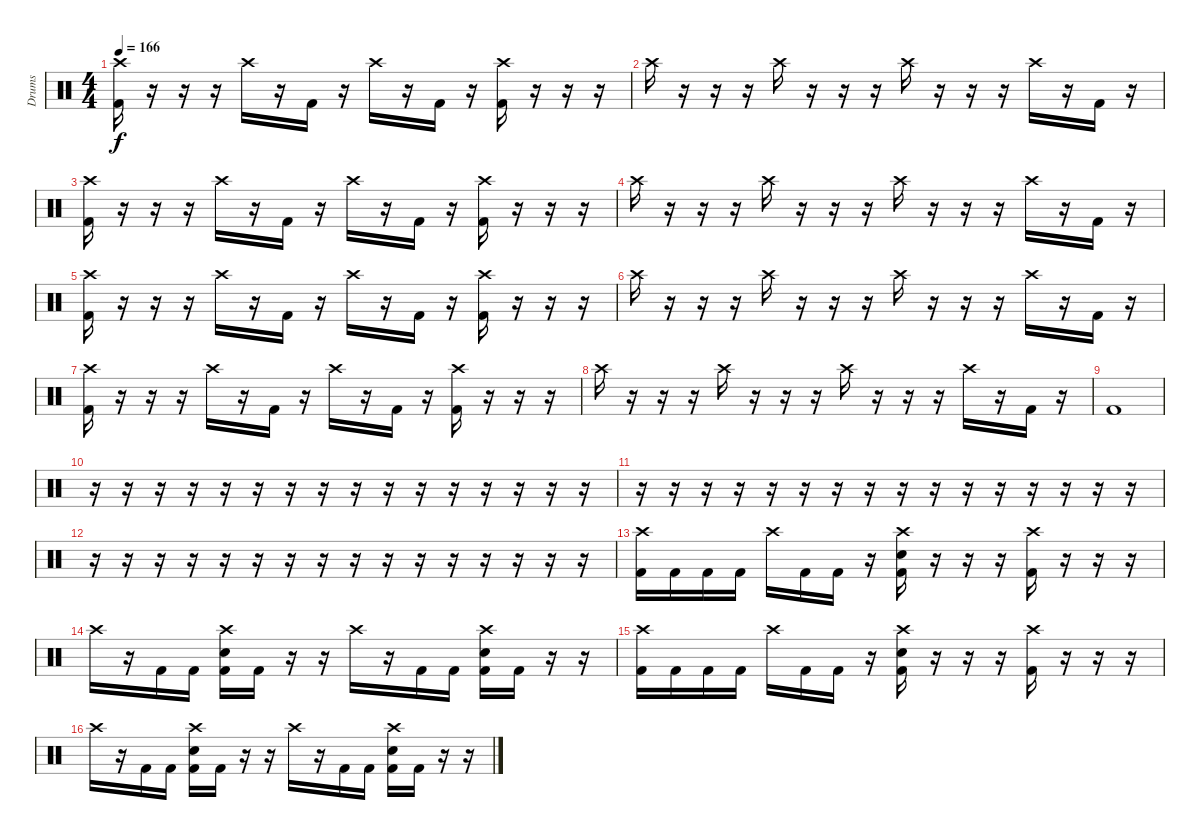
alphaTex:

\track ("Drums" "Drums") {instrument percussion}
\staff {score}
\articulation defaults
\ts (4 4)
\tempo 166
\clef neutral
\ks c
("Crash high (hit)" "Kick (hit) 2").16{dy f} r.16 r.16 r.16 "Crash high (hit)".16 r.16 "Kick (hit) 2".16 r.16 "Crash high (hit)".16 r.16 "Kick (hit) 2".16 r.16 ("Crash high (hit)" "Kick (hit) 2").16 r.16 r.16 r.16 |
"Crash high (hit)".16 r.16 r.16 r.16 "Crash high (hit)".16 r.16 r.16 r.16 "Crash high (hit)".16 r.16 r.16 r.16 "Crash high (hit)".16 r.16 "Kick (hit) 2".16 r.16 |
("Crash high (hit)" "Kick (hit) 2").16 r.16 r.16 r.16 "Crash high (hit)".16 r.16 "Kick (hit) 2".16 r.16 "Crash high (hit)".16 r.16 "Kick (hit) 2".16 r.16 ("Crash high (hit)" "Kick (hit) 2").16 r.16 r.16 r.16 |
"Crash high (hit)".16 r.16 r.16 r.16 "Crash high (hit)".16 r.16 r.16 r.16 "Crash high (hit)".16 r.16 r.16 r.16 "Crash high (hit)".16 r.16 "Kick (hit) 2".16 r.16 |
("Crash high (hit)" "Kick (hit) 2").16 r.16 r.16 r.16 "Crash high (hit)".16 r.16 "Kick (hit) 2".16 r.16 "Crash high (hit)".16 r.16 "Kick (hit) 2".16 r.16 ("Crash high (hit)" "Kick (hit) 2").16 r.16 r.16 r.16 |
"Crash high (hit)".16 r.16 r.16 r.16 "Crash high (hit)".16 r.16 r.16 r.16 "Crash high (hit)".16 r.16 r.16 r.16 "Crash high (hit)".16 r.16 "Kick (hit) 2".16 r.16 |
("Crash high (hit)" "Kick (hit) 2").16 r.16 r.16 r.16 "Crash high (hit)".16 r.16 "Kick (hit) 2".16 r.16 "Crash high (hit)".16 r.16 "Kick (hit) 2".16 r.16 ("Crash high (hit)" "Kick (hit) 2").16 r.16 r.16 r.16 |
"Crash high (hit)".16 r.16 r.16 r.16 "Crash high (hit)".16 r.16 r.16 r.16 "Crash high (hit)".16 r.16 r.16 r.16 "Crash high (hit)".16 r.16 "Kick (hit) 2".16 r.16 |
"Kick (hit) 2".1 |
r.16 r.16 r.16 r.16 r.16 r.16 r.16 r.16 r.16 r.16 r.16 r.16 r.16 r.16 r.16 r.16 |
r.16 r.16 r.16 r.16 r.16 r.16 r.16 r.16 r.16 r.16 r.16 r.16 r.16 r.16 r.16 r.16 |
r.16 r.16 r.16 r.16 r.16 r.16 r.16 r.16 r.16 r.16 r.16 r.16 r.16 r.16 r.16 r.16 |
("Crash high (hit)" "Kick (hit) 2").16 "Kick (hit) 2".16 "Kick (hit) 2".16 "Kick (hit) 2".16 "Crash high (hit)".16 "Kick (hit) 2".16 "Kick (hit) 2".16 r.16 ("Crash high (hit)" "Electric Snare (hit)" "Kick (hit) 2").16 r.16 r.16 r.16 ("Crash high (hit)" "Kick (hit) 2").16 r.16 r.16 r.16 |
"Crash high (hit)".16 r.16 "Kick (hit) 2".16 "Kick (hit) 2".16 ("Crash high (hit)" "Electric Snare (hit)" "Kick (hit) 2").16 "Kick (hit) 2".16 r.16 r.16 "Crash high (hit)".16 r.16 "Kick (hit) 2".16 "Kick (hit) 2".16 ("Crash high (hit)" "Electric Snare (hit)" "Kick (hit) 2").16 "Kick (hit) 2".16 r.16 r.16 |
("Crash high (hit)" "Kick (hit) 2").16 "Kick (hit) 2".16 "Kick (hit) 2".16 "Kick (hit) 2".16 "Crash high (hit)".16 "Kick (hit) 2".16 "Kick (hit) 2".16 r.16 ("Crash high (hit)" "Electric Snare (hit)" "Kick (hit) 2").16 r.16 r.16 r.16 ("Crash high (hit)" "Kick (hit) 2").16 r.16 r.16 r.16 |
"Crash high (hit)".16 r.16 "Kick (hit) 2".16 "Kick (hit) 2".16 ("Crash high (hit)" "Electric Snare (hit)" "Kick (hit) 2").16 "Kick (hit) 2".16 r.16 r.16 "Crash high (hit)".16 r.16 "Kick (hit) 2".16 "Kick (hit) 2".16 ("Crash high (hit)" "Electric Snare (hit)" "Kick (hit) 2").16 "Kick (hit) 2".16 r.16 r.16
